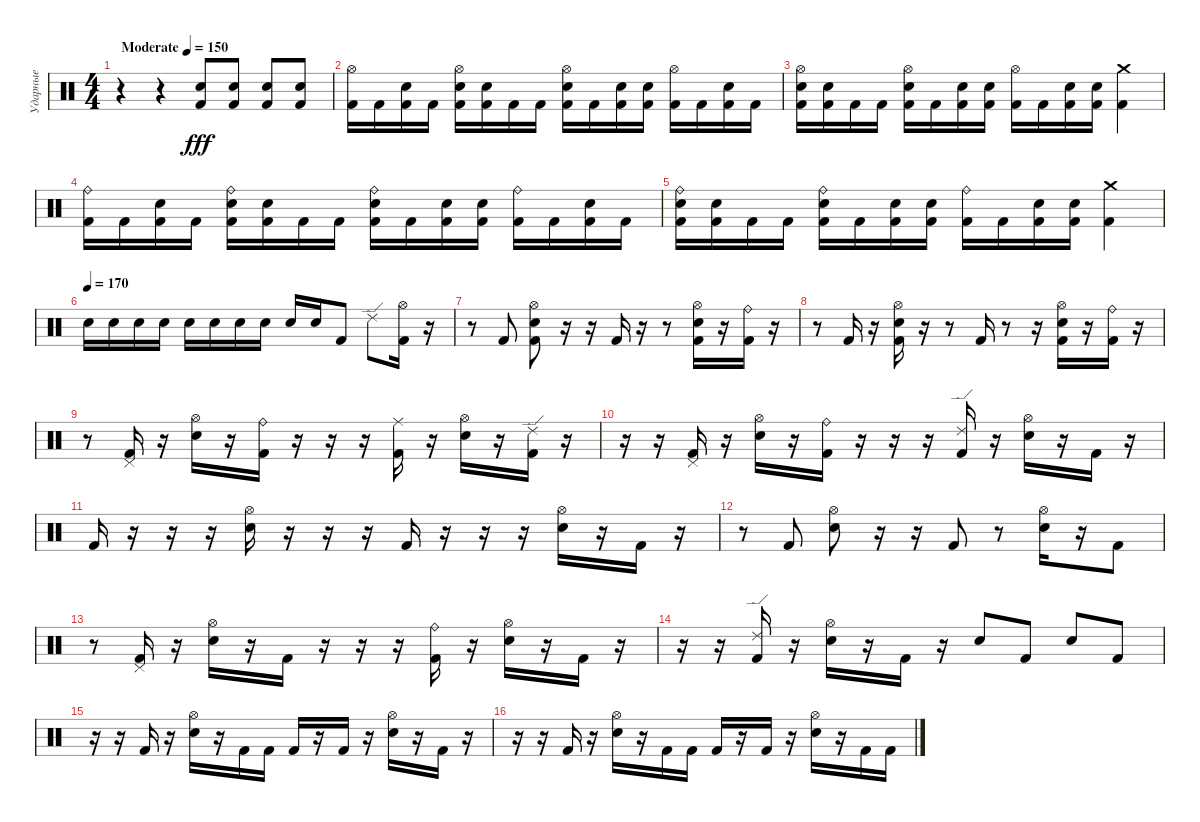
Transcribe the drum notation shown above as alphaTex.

\track ("Ударные" "Ударные") {instrument percussion}
\staff {score}
\articulation defaults
\ts (4 4)
\tempo (150 "Moderate")
\clef neutral
\ks c
r.4{dy fff} r.4 ("Kick (hit) 2" "Electric Snare (hit)").8 ("Kick (hit) 2" "Electric Snare (hit)").8 ("Kick (hit) 2" "Electric Snare (hit)").8 ("Kick (hit) 2" "Electric Snare (hit)").8 |
("Hi-Hat (open)" "Kick (hit) 2").16 "Kick (hit) 2".16 ("Electric Snare (hit)" "Kick (hit) 2").16 "Kick (hit) 2".16 ("Electric Snare (hit)" "Hi-Hat (open)" "Kick (hit) 2").16 ("Electric Snare (hit)" "Kick (hit) 2").16 "Kick (hit) 2".16 "Kick (hit) 2".16 ("Electric Snare (hit)" "Hi-Hat (open)" "Kick (hit) 2").16 "Kick (hit) 2".16 ("Electric Snare (hit)" "Kick (hit) 2").16 ("Electric Snare (hit)" "Kick (hit) 2").16 ("Hi-Hat (open)" "Kick (hit) 2").16 "Kick (hit) 2".16 ("Electric Snare (hit)" "Kick (hit) 2").16 "Kick (hit) 2".16 |
("Electric Snare (hit)" "Hi-Hat (open)" "Kick (hit) 2").16 ("Electric Snare (hit)" "Kick (hit) 2").16 "Kick (hit) 2".16 "Kick (hit) 2".16 ("Electric Snare (hit)" "Hi-Hat (open)" "Kick (hit) 2").16 "Kick (hit) 2".16 ("Electric Snare (hit)" "Kick (hit) 2").16 ("Electric Snare (hit)" "Kick (hit) 2").16 ("Hi-Hat (open)" "Kick (hit) 2").16 "Kick (hit) 2".16 ("Electric Snare (hit)" "Kick (hit) 2").16 ("Electric Snare (hit)" "Kick (hit) 2").16 ("Crash medium (hit)" "Kick (hit) 2").4 |
("Ride (bell)" "Kick (hit) 2").16 "Kick (hit) 2".16 ("Electric Snare (hit)" "Kick (hit) 2").16 "Kick (hit) 2".16 ("Electric Snare (hit)" "Ride (bell)" "Kick (hit) 2").16 ("Electric Snare (hit)" "Kick (hit) 2").16 "Kick (hit) 2".16 "Kick (hit) 2".16 ("Electric Snare (hit)" "Ride (bell)" "Kick (hit) 2").16 "Kick (hit) 2".16 ("Electric Snare (hit)" "Kick (hit) 2").16 ("Electric Snare (hit)" "Kick (hit) 2").16 ("Ride (bell)" "Kick (hit) 2").16 "Kick (hit) 2".16 ("Electric Snare (hit)" "Kick (hit) 2").16 "Kick (hit) 2".16 |
("Electric Snare (hit)" "Ride (bell)" "Kick (hit) 2").16 ("Electric Snare (hit)" "Kick (hit) 2").16 "Kick (hit) 2".16 "Kick (hit) 2".16 ("Electric Snare (hit)" "Ride (bell)" "Kick (hit) 2").16 "Kick (hit) 2".16 ("Electric Snare (hit)" "Kick (hit) 2").16 ("Electric Snare (hit)" "Kick (hit) 2").16 ("Ride (bell)" "Kick (hit) 2").16 "Kick (hit) 2".16 ("Electric Snare (hit)" "Kick (hit) 2").16 ("Electric Snare (hit)" "Kick (hit) 2").16 ("Crash medium (hit)" "Kick (hit) 2").4 |
\tempo (170)
"Electric Snare (hit)".16 "Electric Snare (hit)".16 "Electric Snare (hit)".16 "Electric Snare (hit)".16 "Electric Snare (hit)".16 "Electric Snare (hit)".16 "Electric Snare (hit)".16 "Electric Snare (hit)".16 "Electric Snare (hit)".16 "Electric Snare (hit)".16 "Kick (hit) 2".8 "Ride (edge) 2".8 ("Hi-Hat (open)" "Kick (hit) 2").16 r.16 |
r.8 "Kick (hit) 2".8 ("Electric Snare (hit)" "Hi-Hat (open)" "Kick (hit) 2").8 r.16 r.16 "Kick (hit) 2".16 r.16 r.8 ("Kick (hit) 2" "Hi-Hat (open)" "Electric Snare (hit)").16 r.16 ("Ride (bell)" "Kick (hit) 2").16 r.16 |
r.8 "Kick (hit) 2".16 r.16 ("Kick (hit) 2" "Electric Snare (hit)" "Hi-Hat (open)").16 r.16 r.8 "Kick (hit) 2".16 r.8 r.16 ("Kick (hit) 2" "Electric Snare (hit)" "Hi-Hat (open)").16 r.16 ("Kick (hit) 2" "Ride (bell)").16 r.16 |
r.8 ("Kick (hit) 2" "Pedal Hi-Hat (hit)").16 r.16 ("Electric Snare (hit)" "Hi-Hat (open)").16 r.16 ("Kick (hit) 2" "Ride (bell)").16 r.16 r.16 r.16 ("Kick (hit) 2" "Ride (middle)").16 r.16 ("Electric Snare (hit)" "Hi-Hat (open)").16 r.16 ("Kick (hit) 2" "Ride (edge) 2").16 r.16 |
r.16 r.16 ("Kick (hit) 2" "Pedal Hi-Hat (hit)").16 r.16 ("Electric Snare (hit)" "Hi-Hat (open)").16 r.16 ("Ride (bell)" "Kick (hit) 2").16 r.16 r.16 r.16 ("Ride (edge) 2" "Kick (hit) 2").16 r.16 ("Hi-Hat (open)" "Electric Snare (hit)").16 r.16 "Kick (hit) 2".16 r.16 |
"Kick (hit) 2".16 r.16 r.16 r.16 ("Hi-Hat (open)" "Electric Snare (hit)").16 r.16 r.16 r.16 "Kick (hit) 2".16 r.16 r.16 r.16 ("Electric Snare (hit)" "Hi-Hat (open)").16 r.16 "Kick (hit) 2".16 r.16 |
r.8 "Kick (hit) 2".8 ("Electric Snare (hit)" "Hi-Hat (open)").8 r.16 r.16 "Kick (hit) 2".8 r.8 ("Electric Snare (hit)" "Hi-Hat (open)").16 r.16 "Kick (hit) 2".8 |
r.8 ("Kick (hit) 2" "Pedal Hi-Hat (hit)").16 r.16 ("Electric Snare (hit)" "Hi-Hat (open)").16 r.16 "Kick (hit) 2".16 r.16 r.16 r.16 ("Kick (hit) 2" "Ride (bell)").16 r.16 ("Electric Snare (hit)" "Hi-Hat (open)").16 r.16 "Kick (hit) 2".16 r.16 |
r.16 r.16 ("Ride (edge) 2" "Kick (hit) 2").16 r.16 ("Electric Snare (hit)" "Hi-Hat (open)").16 r.16 "Kick (hit) 2".16 r.16 "Electric Snare (hit)".8 "Kick (hit) 2".8 "Electric Snare (hit)".8 "Kick (hit) 2".8 |
r.16 r.16 "Kick (hit) 2".16 r.16 ("Hi-Hat (open)" "Electric Snare (hit)").16 r.16 "Kick (hit) 2".16 "Kick (hit) 2".16 "Kick (hit) 2".16 r.16 "Kick (hit) 2".16 r.16 ("Electric Snare (hit)" "Hi-Hat (open)").16 r.16 "Kick (hit) 2".16 r.16 |
r.16 r.16 "Kick (hit) 2".16 r.16 ("Electric Snare (hit)" "Hi-Hat (open)").16 r.16 "Kick (hit) 2".16 "Kick (hit) 2".16 "Kick (hit) 2".16 r.16 "Kick (hit) 2".16 r.16 ("Electric Snare (hit)" "Hi-Hat (open)").16 r.16 "Kick (hit) 2".16 "Kick (hit) 2".16
